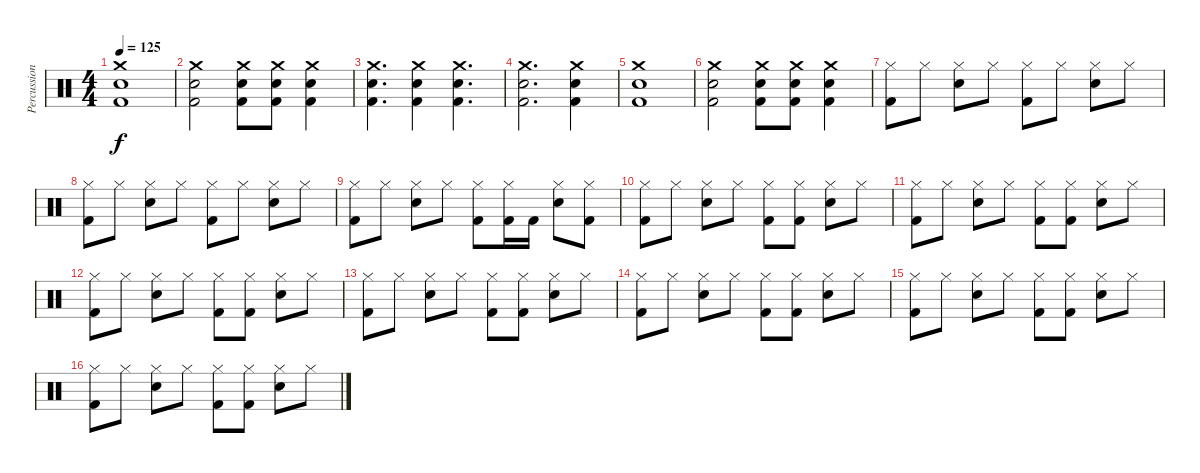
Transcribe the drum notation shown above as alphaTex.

\track ("Percussion" "Percussion") {instrument percussion}
\staff {score}
\articulation defaults
\ts (4 4)
\tempo 125
\clef neutral
\ks c
("Crash medium (hit)" "Snare (hit) 2" "Kick (hit) 2").1{dy f} |
("Crash medium (hit)" "Snare (hit) 2" "Kick (hit) 2").2 ("Crash medium (hit)" "Snare (hit) 2" "Kick (hit) 2").8 ("Crash medium (hit)" "Snare (hit) 2" "Kick (hit) 2").8 ("Crash medium (hit)" "Snare (hit) 2" "Kick (hit) 2").4 |
("Crash medium (hit)" "Snare (hit) 2" "Kick (hit) 2").4{d} ("Crash medium (hit)" "Snare (hit) 2" "Kick (hit) 2").4 ("Crash medium (hit)" "Snare (hit) 2" "Kick (hit) 2").4{d} |
("Crash medium (hit)" "Snare (hit) 2" "Kick (hit) 2").2{d} ("Crash medium (hit)" "Snare (hit) 2" "Kick (hit) 2").4 |
("Crash medium (hit)" "Snare (hit) 2" "Kick (hit) 2").1 |
("Crash medium (hit)" "Snare (hit) 2" "Kick (hit) 2").2 ("Crash medium (hit)" "Snare (hit) 2" "Kick (hit) 2").8 ("Crash medium (hit)" "Snare (hit) 2" "Kick (hit) 2").8 ("Crash medium (hit)" "Snare (hit) 2" "Kick (hit) 2").4 |
("Hi-Hat (closed)" "Kick (hit) 2").8 "Hi-Hat (closed)".8 ("Hi-Hat (closed)" "Snare (hit) 2").8 "Hi-Hat (closed)".8 ("Hi-Hat (closed)" "Kick (hit) 2").8 "Hi-Hat (closed)".8 ("Hi-Hat (closed)" "Snare (hit) 2").8 "Hi-Hat (closed)".8 |
("Hi-Hat (closed)" "Kick (hit) 2").8 "Hi-Hat (closed)".8 ("Hi-Hat (closed)" "Snare (hit) 2").8 "Hi-Hat (closed)".8 ("Hi-Hat (closed)" "Kick (hit) 2").8 "Hi-Hat (closed)".8 ("Hi-Hat (closed)" "Snare (hit) 2").8 "Hi-Hat (closed)".8 |
("Hi-Hat (closed)" "Kick (hit) 2").8 "Hi-Hat (closed)".8 ("Hi-Hat (closed)" "Snare (hit) 2").8 "Hi-Hat (closed)".8 ("Hi-Hat (closed)" "Kick (hit) 2").8 ("Hi-Hat (closed)" "Kick (hit) 2").16 "Kick (hit) 2".16 ("Hi-Hat (closed)" "Snare (hit) 2").8 ("Hi-Hat (closed)" "Kick (hit) 2").8 |
("Hi-Hat (closed)" "Kick (hit) 2").8 "Hi-Hat (closed)".8 ("Hi-Hat (closed)" "Snare (hit) 2").8 "Hi-Hat (closed)".8 ("Hi-Hat (closed)" "Kick (hit) 2").8 ("Hi-Hat (closed)" "Kick (hit) 2").8 ("Hi-Hat (closed)" "Snare (hit) 2").8 "Hi-Hat (closed)".8 |
("Hi-Hat (closed)" "Kick (hit) 2").8 "Hi-Hat (closed)".8 ("Hi-Hat (closed)" "Snare (hit) 2").8 "Hi-Hat (closed)".8 ("Hi-Hat (closed)" "Kick (hit) 2").8 ("Hi-Hat (closed)" "Kick (hit) 2").8 ("Hi-Hat (closed)" "Snare (hit) 2").8 "Hi-Hat (closed)".8 |
("Hi-Hat (closed)" "Kick (hit) 2").8 "Hi-Hat (closed)".8 ("Hi-Hat (closed)" "Snare (hit) 2").8 "Hi-Hat (closed)".8 ("Hi-Hat (closed)" "Kick (hit) 2").8 ("Hi-Hat (closed)" "Kick (hit) 2").8 ("Hi-Hat (closed)" "Snare (hit) 2").8 "Hi-Hat (closed)".8 |
("Hi-Hat (closed)" "Kick (hit) 2").8 "Hi-Hat (closed)".8 ("Hi-Hat (closed)" "Snare (hit) 2").8 "Hi-Hat (closed)".8 ("Hi-Hat (closed)" "Kick (hit) 2").8 ("Hi-Hat (closed)" "Kick (hit) 2").8 ("Hi-Hat (closed)" "Snare (hit) 2").8 "Hi-Hat (closed)".8 |
("Hi-Hat (closed)" "Kick (hit) 2").8 "Hi-Hat (closed)".8 ("Hi-Hat (closed)" "Snare (hit) 2").8 "Hi-Hat (closed)".8 ("Hi-Hat (closed)" "Kick (hit) 2").8 ("Hi-Hat (closed)" "Kick (hit) 2").8 ("Hi-Hat (closed)" "Snare (hit) 2").8 "Hi-Hat (closed)".8 |
("Hi-Hat (closed)" "Kick (hit) 2").8 "Hi-Hat (closed)".8 ("Hi-Hat (closed)" "Snare (hit) 2").8 "Hi-Hat (closed)".8 ("Hi-Hat (closed)" "Kick (hit) 2").8 ("Hi-Hat (closed)" "Kick (hit) 2").8 ("Hi-Hat (closed)" "Snare (hit) 2").8 "Hi-Hat (closed)".8 |
("Hi-Hat (closed)" "Kick (hit) 2").8 "Hi-Hat (closed)".8 ("Hi-Hat (closed)" "Snare (hit) 2").8 "Hi-Hat (closed)".8 ("Hi-Hat (closed)" "Kick (hit) 2").8 ("Hi-Hat (closed)" "Kick (hit) 2").8 ("Hi-Hat (closed)" "Snare (hit) 2").8 "Hi-Hat (closed)".8
